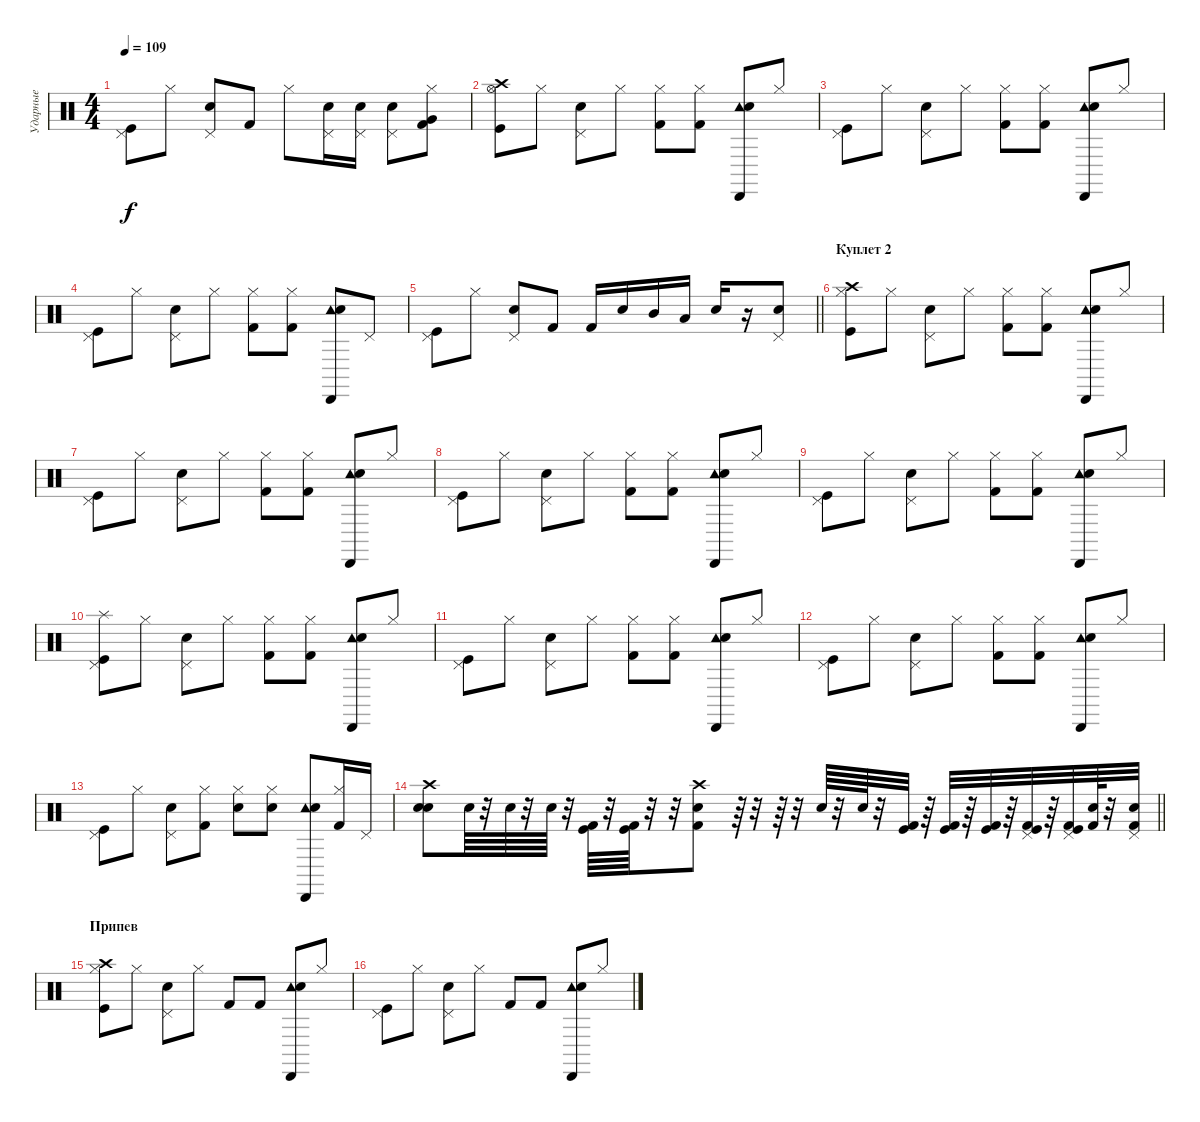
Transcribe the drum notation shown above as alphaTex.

\track ("Ударные" "Ударные") {instrument percussion}
\staff {score}
\articulation defaults
\ts (4 4)
\tempo 109
\clef neutral
\ks c
("Pedal Hi-Hat (hit)" "Kick (hit)").8{dy f} "Hi-Hat (closed)".8 ("Pedal Hi-Hat (hit)" "Snare (hit) 2").8 "Kick (hit) 2".8 "Hi-Hat (closed)".8 ("Pedal Hi-Hat (hit)" "Snare (hit) 2").16 ("Pedal Hi-Hat (hit)" "Snare (hit) 2").16 ("Pedal Hi-Hat (hit)" "Snare (hit) 2").8 ("Hi-Hat (closed)" "Very Low Tom (hit)" "Kick (hit) 2").8 |
("Hi-Hat (open)" "Crash high (hit)" "Kick (hit)").8 "Hi-Hat (closed)".8 ("Pedal Hi-Hat (hit)" "Snare (hit) 2").8 "Hi-Hat (closed)".8 ("Hi-Hat (closed)" "Kick (hit) 2").8 ("Hi-Hat (closed)" "Kick (hit) 2").8 ("Tambourine (hit)" "Cabasa (hit)" "Snare (hit) 2").8 "Hi-Hat (closed)".8 |
("Pedal Hi-Hat (hit)" "Kick (hit)").8 "Hi-Hat (closed)".8 ("Pedal Hi-Hat (hit)" "Snare (hit) 2").8 "Hi-Hat (closed)".8 ("Hi-Hat (closed)" "Kick (hit) 2").8 ("Hi-Hat (closed)" "Kick (hit) 2").8 ("Tambourine (hit)" "Cabasa (hit)" "Snare (hit) 2").8 "Hi-Hat (closed)".8 |
("Pedal Hi-Hat (hit)" "Kick (hit)").8 "Hi-Hat (closed)".8 ("Pedal Hi-Hat (hit)" "Snare (hit) 2").8 "Hi-Hat (closed)".8 ("Hi-Hat (closed)" "Kick (hit) 2").8 ("Hi-Hat (closed)" "Kick (hit) 2").8 ("Tambourine (hit)" "Cabasa (hit)" "Snare (hit) 2").8 "Pedal Hi-Hat (hit)".8 |
\barLineRight lightlight
("Pedal Hi-Hat (hit)" "Kick (hit)").8 "Hi-Hat (closed)".8 ("Pedal Hi-Hat (hit)" "Snare (hit) 2").8 "Kick (hit) 2".8 "Kick (hit) 2".16 "Electric Snare (hit)".16 "Mid Tom (hit)".16 "Low Floor Tom (hit)".16 "Electric Snare (hit)".16 r.16 ("Pedal Hi-Hat (hit)" "Snare (hit) 2").8 |
\section ("" "Куплет 2 ")
("Hi-Hat (closed)" "Crash high (hit)" "Kick (hit)").8 "Hi-Hat (closed)".8 ("Pedal Hi-Hat (hit)" "Snare (hit) 2").8 "Hi-Hat (closed)".8 ("Hi-Hat (closed)" "Kick (hit) 2").8 ("Hi-Hat (closed)" "Kick (hit) 2").8 ("Tambourine (hit)" "Cabasa (hit)" "Snare (hit) 2").8 "Hi-Hat (closed)".8 |
("Pedal Hi-Hat (hit)" "Kick (hit)").8 "Hi-Hat (closed)".8 ("Pedal Hi-Hat (hit)" "Snare (hit) 2").8 "Hi-Hat (closed)".8 ("Hi-Hat (closed)" "Kick (hit) 2").8 ("Hi-Hat (closed)" "Kick (hit) 2").8 ("Tambourine (hit)" "Cabasa (hit)" "Snare (hit) 2").8 "Hi-Hat (closed)".8 |
("Pedal Hi-Hat (hit)" "Kick (hit)").8 "Hi-Hat (closed)".8 ("Pedal Hi-Hat (hit)" "Snare (hit) 2").8 "Hi-Hat (closed)".8 ("Hi-Hat (closed)" "Kick (hit) 2").8 ("Hi-Hat (closed)" "Kick (hit) 2").8 ("Tambourine (hit)" "Cabasa (hit)" "Snare (hit) 2").8 "Hi-Hat (closed)".8 |
("Pedal Hi-Hat (hit)" "Kick (hit)").8 "Hi-Hat (closed)".8 ("Pedal Hi-Hat (hit)" "Snare (hit) 2").8 "Hi-Hat (closed)".8 ("Hi-Hat (closed)" "Kick (hit) 2").8 ("Hi-Hat (closed)" "Kick (hit) 2").8 ("Tambourine (hit)" "Cabasa (hit)" "Snare (hit) 2").8 "Hi-Hat (closed)".8 |
("Pedal Hi-Hat (hit)" "Splash (hit)" "Kick (hit)").8 "Hi-Hat (closed)".8 ("Pedal Hi-Hat (hit)" "Snare (hit) 2").8 "Hi-Hat (closed)".8 ("Hi-Hat (closed)" "Kick (hit) 2").8 ("Hi-Hat (closed)" "Kick (hit) 2").8 ("Tambourine (hit)" "Cabasa (hit)" "Snare (hit) 2").8 "Hi-Hat (closed)".8 |
("Pedal Hi-Hat (hit)" "Kick (hit)").8 "Hi-Hat (closed)".8 ("Pedal Hi-Hat (hit)" "Snare (hit) 2").8 "Hi-Hat (closed)".8 ("Hi-Hat (closed)" "Kick (hit) 2").8 ("Hi-Hat (closed)" "Kick (hit) 2").8 ("Tambourine (hit)" "Cabasa (hit)" "Snare (hit) 2").8 "Hi-Hat (closed)".8 |
("Pedal Hi-Hat (hit)" "Kick (hit)").8 "Hi-Hat (closed)".8 ("Pedal Hi-Hat (hit)" "Snare (hit) 2").8 "Hi-Hat (closed)".8 ("Hi-Hat (closed)" "Kick (hit) 2").8 ("Hi-Hat (closed)" "Kick (hit) 2").8 ("Tambourine (hit)" "Cabasa (hit)" "Snare (hit) 2").8 "Hi-Hat (closed)".8 |
("Pedal Hi-Hat (hit)" "Kick (hit)").8 "Hi-Hat (closed)".8 ("Pedal Hi-Hat (hit)" "Snare (hit) 2").8 ("Hi-Hat (closed)" "Kick (hit) 2").8 ("Hi-Hat (closed)" "Snare (hit) 2").8 ("Hi-Hat (closed)" "Snare (hit) 2").8 ("Tambourine (hit)" "Cabasa (hit)" "Snare (hit) 2").8 ("Hi-Hat (closed)" "Kick (hit) 2").16 "Pedal Hi-Hat (hit)".16 |
\barLineRight lightlight
("Crash high (hit)" "Electric Snare (hit)" "Snare (hit) 2").8 "Electric Snare (hit)".64{volume 7} r.32 "Electric Snare (hit)".64 r.32 "Electric Snare (hit)".64 r.32 ("Kick (hit)" "Kick (hit) 2").64 r.32 ("Kick (hit)" "Kick (hit) 2").64 r.32 r.32 ("Crash high (hit)" "Kick (hit) 2" "Snare (hit) 2").8{volume 10} r.64{volume 7 balance 5} r.32 r.64 r.32 "Electric Snare (hit)".64 r.32 "Electric Snare (hit)".64 r.32 ("Kick (hit)" "Kick (hit) 2").32 r.64 ("Kick (hit)" "Kick (hit) 2").32 r.64 ("Kick (hit)" "Kick (hit) 2").32 r.64 ("Pedal Hi-Hat (hit)" "Kick (hit)" "Kick (hit) 2").32 r.64 ("Pedal Hi-Hat (hit)" "Kick (hit)" "Kick (hit) 2").32 ("Electric Snare (hit)" "Kick (hit) 2").64 r.32 ("Pedal Hi-Hat (hit)" "Electric Snare (hit)" "Kick (hit) 2").32 |
\section ("" "Припев")
("Hi-Hat (closed)" "Crash high (hit)" "Kick (hit)").8{volume 10} "Hi-Hat (closed)".8 ("Pedal Hi-Hat (hit)" "Snare (hit) 2").8 "Hi-Hat (closed)".8 "Kick (hit) 2".8 "Kick (hit) 2".8 ("Tambourine (hit)" "Cabasa (hit)" "Snare (hit) 2").8 "Hi-Hat (closed)".8 |
("Pedal Hi-Hat (hit)" "Kick (hit)").8 "Hi-Hat (closed)".8 ("Pedal Hi-Hat (hit)" "Snare (hit) 2").8 "Hi-Hat (closed)".8 "Kick (hit) 2".8 "Kick (hit) 2".8 ("Tambourine (hit)" "Cabasa (hit)" "Snare (hit) 2").8 "Hi-Hat (closed)".8
